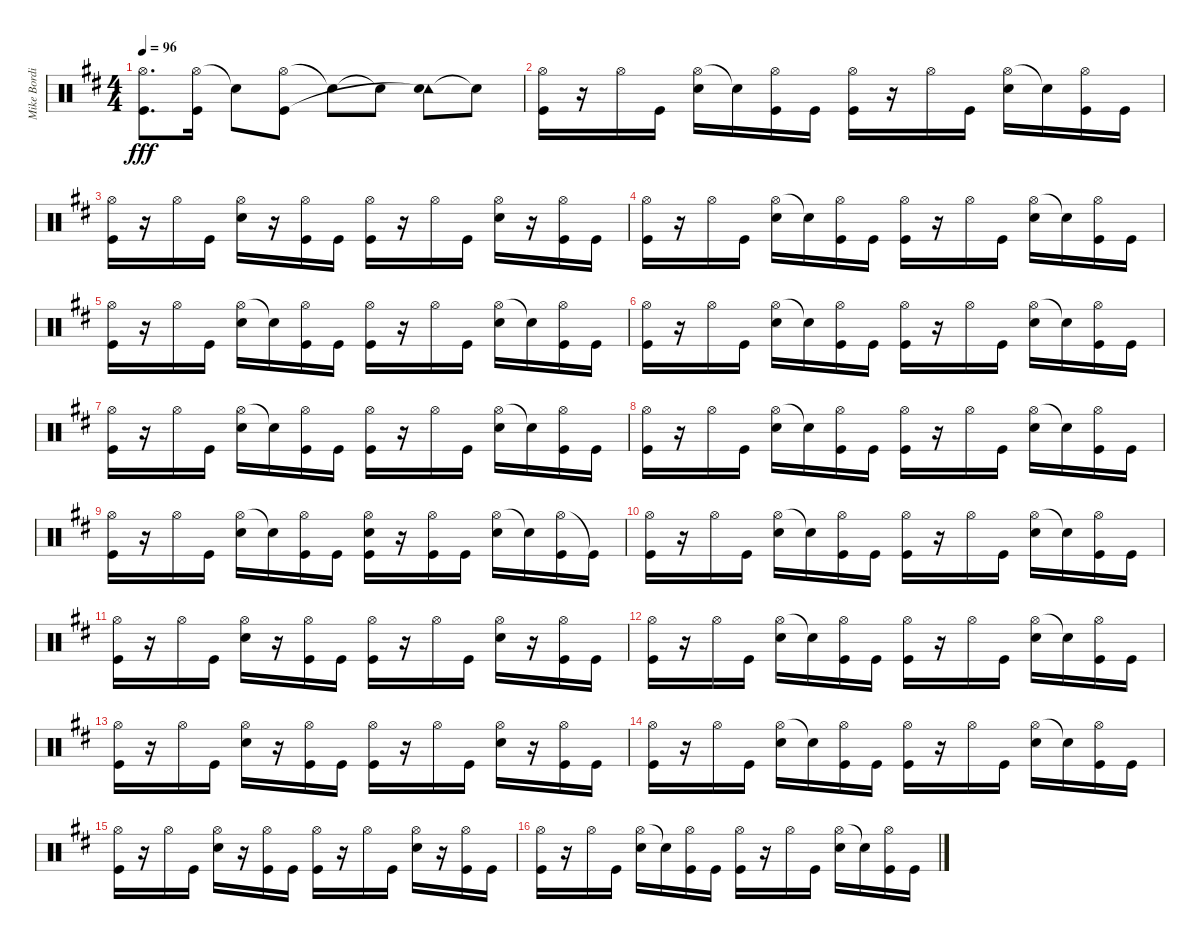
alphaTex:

\track ("Mike Bordin" "Mike Bordi") {instrument percussion}
\staff {score}
\articulation defaults
\ts (4 4)
\tempo 96
\clef neutral
\ks d
("Hi-Hat (open)" "Kick (hit)").8{d dy fff} ("Hi-Hat (open)" "Kick (hit)").16 "Snare (hit)"{t}.8 ("Hi-Hat (open)" "Kick (hit)").8 "Snare (hit)"{t}.8 "Snare (hit)"{t}.8 ("Tambourine (hit)" "Snare (hit)"{t}).8 "Snare (hit)"{t}.8 |
("Hi-Hat (open)" "Kick (hit)").16 r.16 "Hi-Hat (open)".16 "Kick (hit)".16 ("Hi-Hat (open)" "Electric Snare (hit)").16 "Snare (hit)"{t}.16 ("Hi-Hat (open)" "Kick (hit)").16 "Kick (hit)".16 ("Hi-Hat (open)" "Kick (hit)").16 r.16 "Hi-Hat (open)".16 "Kick (hit)".16 ("Hi-Hat (open)" "Electric Snare (hit)").16 "Snare (hit)"{t}.16 ("Hi-Hat (open)" "Kick (hit)").16 "Kick (hit)".16 |
("Hi-Hat (open)" "Kick (hit)").16 r.16 "Hi-Hat (open)".16 "Kick (hit)".16 ("Hi-Hat (open)" "Electric Snare (hit)").16 r.16 ("Hi-Hat (open)" "Kick (hit)").16 "Kick (hit)".16 ("Hi-Hat (open)" "Kick (hit)").16 r.16 "Hi-Hat (open)".16 "Kick (hit)".16 ("Hi-Hat (open)" "Electric Snare (hit)").16 r.16 ("Hi-Hat (open)" "Kick (hit)").16 "Kick (hit)".16 |
("Hi-Hat (open)" "Kick (hit)").16 r.16 "Hi-Hat (open)".16 "Kick (hit)".16 ("Hi-Hat (open)" "Electric Snare (hit)").16 "Snare (hit)"{t}.16 ("Hi-Hat (open)" "Kick (hit)").16 "Kick (hit)".16 ("Hi-Hat (open)" "Kick (hit)").16 r.16 "Hi-Hat (open)".16 "Kick (hit)".16 ("Hi-Hat (open)" "Electric Snare (hit)").16 "Snare (hit)"{t}.16 ("Hi-Hat (open)" "Kick (hit)").16 "Kick (hit)".16 |
("Hi-Hat (open)" "Kick (hit)").16 r.16 "Hi-Hat (open)".16 "Kick (hit)".16 ("Hi-Hat (open)" "Electric Snare (hit)").16 "Snare (hit)"{t}.16 ("Hi-Hat (open)" "Kick (hit)").16 "Kick (hit)".16 ("Hi-Hat (open)" "Kick (hit)").16 r.16 "Hi-Hat (open)".16 "Kick (hit)".16 ("Hi-Hat (open)" "Electric Snare (hit)").16 "Snare (hit)"{t}.16 ("Hi-Hat (open)" "Kick (hit)").16 "Kick (hit)".16 |
("Hi-Hat (open)" "Kick (hit)").16 r.16 "Hi-Hat (open)".16 "Kick (hit)".16 ("Hi-Hat (open)" "Electric Snare (hit)").16 "Snare (hit)"{t}.16 ("Hi-Hat (open)" "Kick (hit)").16 "Kick (hit)".16 ("Hi-Hat (open)" "Kick (hit)").16 r.16 "Hi-Hat (open)".16 "Kick (hit)".16 ("Hi-Hat (open)" "Electric Snare (hit)").16 "Snare (hit)"{t}.16 ("Hi-Hat (open)" "Kick (hit)").16 "Kick (hit)".16 |
("Hi-Hat (open)" "Kick (hit)").16 r.16 "Hi-Hat (open)".16 "Kick (hit)".16 ("Hi-Hat (open)" "Electric Snare (hit)").16 "Snare (hit)"{t}.16 ("Hi-Hat (open)" "Kick (hit)").16 "Kick (hit)".16 ("Hi-Hat (open)" "Kick (hit)").16 r.16 "Hi-Hat (open)".16 "Kick (hit)".16 ("Hi-Hat (open)" "Electric Snare (hit)").16 "Snare (hit)"{t}.16 ("Hi-Hat (open)" "Kick (hit)").16 "Kick (hit)".16 |
("Hi-Hat (open)" "Kick (hit)").16 r.16 "Hi-Hat (open)".16 "Kick (hit)".16 ("Hi-Hat (open)" "Electric Snare (hit)").16 "Snare (hit)"{t}.16 ("Hi-Hat (open)" "Kick (hit)").16 "Kick (hit)".16 ("Hi-Hat (open)" "Kick (hit)").16 r.16 "Hi-Hat (open)".16 "Kick (hit)".16 ("Hi-Hat (open)" "Electric Snare (hit)").16 "Snare (hit)"{t}.16 ("Hi-Hat (open)" "Kick (hit)").16 "Kick (hit)".16 |
("Hi-Hat (open)" "Kick (hit)").16 r.16 "Hi-Hat (open)".16 "Kick (hit)".16 ("Hi-Hat (open)" "Electric Snare (hit)").16 "Snare (hit)"{t}.16 ("Hi-Hat (open)" "Kick (hit)").16 "Kick (hit)".16 ("Hi-Hat (open)" "Electric Snare (hit)" "Kick (hit)").16 r.16 ("Hi-Hat (open)" "Kick (hit)").16 "Kick (hit)".16 ("Hi-Hat (open)" "Electric Snare (hit)").16 "Snare (hit)"{t}.16 ("Hi-Hat (open)" "Kick (hit)").16 "Kick (hit)"{t}.16 |
("Hi-Hat (open)" "Kick (hit)").16 r.16 "Hi-Hat (open)".16 "Kick (hit)".16 ("Hi-Hat (open)" "Electric Snare (hit)").16 "Snare (hit)"{t}.16 ("Hi-Hat (open)" "Kick (hit)").16 "Kick (hit)".16 ("Hi-Hat (open)" "Kick (hit)").16 r.16 "Hi-Hat (open)".16 "Kick (hit)".16 ("Hi-Hat (open)" "Electric Snare (hit)").16 "Snare (hit)"{t}.16 ("Hi-Hat (open)" "Kick (hit)").16 "Kick (hit)".16 |
("Hi-Hat (open)" "Kick (hit)").16 r.16 "Hi-Hat (open)".16 "Kick (hit)".16 ("Hi-Hat (open)" "Electric Snare (hit)").16 r.16 ("Hi-Hat (open)" "Kick (hit)").16 "Kick (hit)".16 ("Hi-Hat (open)" "Kick (hit)").16 r.16 "Hi-Hat (open)".16 "Kick (hit)".16 ("Hi-Hat (open)" "Electric Snare (hit)").16 r.16 ("Hi-Hat (open)" "Kick (hit)").16 "Kick (hit)".16 |
("Hi-Hat (open)" "Kick (hit)").16 r.16 "Hi-Hat (open)".16 "Kick (hit)".16 ("Hi-Hat (open)" "Electric Snare (hit)").16 "Snare (hit)"{t}.16 ("Hi-Hat (open)" "Kick (hit)").16 "Kick (hit)".16 ("Hi-Hat (open)" "Kick (hit)").16 r.16 "Hi-Hat (open)".16 "Kick (hit)".16 ("Hi-Hat (open)" "Electric Snare (hit)").16 "Snare (hit)"{t}.16 ("Hi-Hat (open)" "Kick (hit)").16 "Kick (hit)".16 |
("Hi-Hat (open)" "Kick (hit)").16 r.16 "Hi-Hat (open)".16 "Kick (hit)".16 ("Hi-Hat (open)" "Electric Snare (hit)").16 r.16 ("Hi-Hat (open)" "Kick (hit)").16 "Kick (hit)".16 ("Hi-Hat (open)" "Kick (hit)").16 r.16 "Hi-Hat (open)".16 "Kick (hit)".16 ("Hi-Hat (open)" "Electric Snare (hit)").16 r.16 ("Hi-Hat (open)" "Kick (hit)").16 "Kick (hit)".16 |
("Hi-Hat (open)" "Kick (hit)").16 r.16 "Hi-Hat (open)".16 "Kick (hit)".16 ("Hi-Hat (open)" "Electric Snare (hit)").16 "Snare (hit)"{t}.16 ("Hi-Hat (open)" "Kick (hit)").16 "Kick (hit)".16 ("Hi-Hat (open)" "Kick (hit)").16 r.16 "Hi-Hat (open)".16 "Kick (hit)".16 ("Hi-Hat (open)" "Electric Snare (hit)").16 "Snare (hit)"{t}.16 ("Hi-Hat (open)" "Kick (hit)").16 "Kick (hit)".16 |
("Hi-Hat (open)" "Kick (hit)").16 r.16 "Hi-Hat (open)".16 "Kick (hit)".16 ("Hi-Hat (open)" "Electric Snare (hit)").16 r.16 ("Hi-Hat (open)" "Kick (hit)").16 "Kick (hit)".16 ("Hi-Hat (open)" "Kick (hit)").16 r.16 "Hi-Hat (open)".16 "Kick (hit)".16 ("Hi-Hat (open)" "Electric Snare (hit)").16 r.16 ("Hi-Hat (open)" "Kick (hit)").16 "Kick (hit)".16 |
("Hi-Hat (open)" "Kick (hit)").16 r.16 "Hi-Hat (open)".16 "Kick (hit)".16 ("Hi-Hat (open)" "Electric Snare (hit)").16 "Snare (hit)"{t}.16 ("Hi-Hat (open)" "Kick (hit)").16 "Kick (hit)".16 ("Hi-Hat (open)" "Kick (hit)").16 r.16 "Hi-Hat (open)".16 "Kick (hit)".16 ("Hi-Hat (open)" "Electric Snare (hit)").16 "Snare (hit)"{t}.16 ("Hi-Hat (open)" "Kick (hit)").16 "Kick (hit)".16
